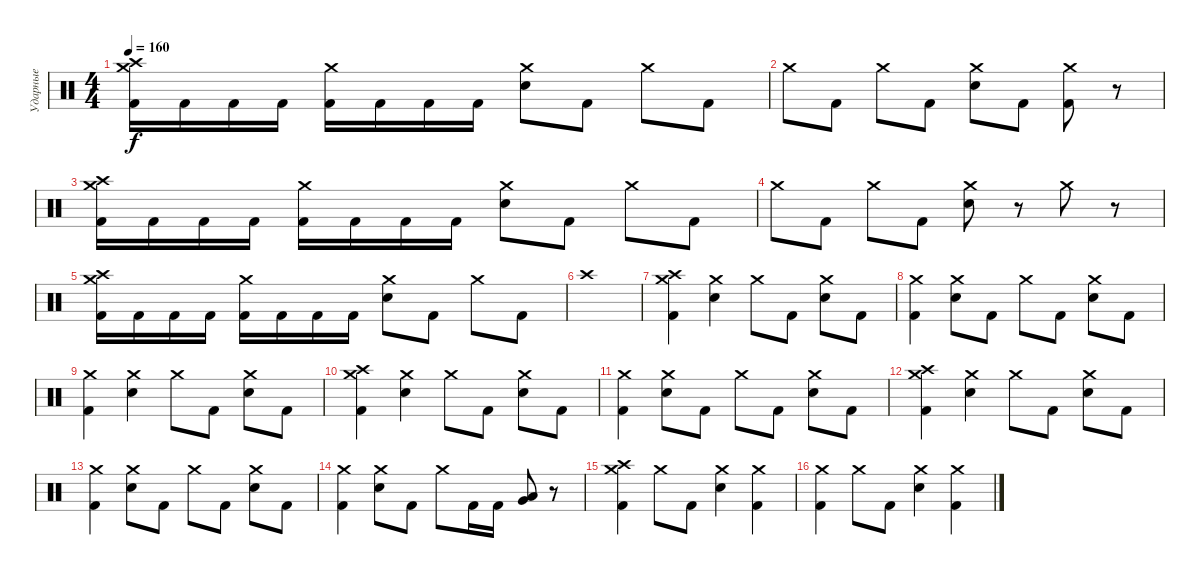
\track ("Ударные" "Ударные") {instrument percussion}
\staff {score}
\articulation defaults
\ts (4 4)
\tempo 160
\clef neutral
\ks c
("Crash medium (hit)" "Crash high (hit)" "Kick (hit) 2").16{dy f} "Kick (hit) 2".16 "Kick (hit) 2".16 "Kick (hit) 2".16 ("Crash medium (hit)" "Kick (hit) 2").16 "Kick (hit) 2".16 "Kick (hit) 2".16 "Kick (hit) 2".16 ("Crash medium (hit)" "Electric Snare (hit)").8 "Kick (hit) 2".8 "Crash medium (hit)".8 "Kick (hit) 2".8 |
"Crash medium (hit)".8 "Kick (hit) 2".8 "Crash medium (hit)".8 "Kick (hit) 2".8 ("Crash medium (hit)" "Electric Snare (hit)").8 "Kick (hit) 2".8 ("Crash medium (hit)" "Kick (hit) 2").8 r.8 |
("Crash medium (hit)" "Crash high (hit)" "Kick (hit) 2").16 "Kick (hit) 2".16 "Kick (hit) 2".16 "Kick (hit) 2".16 ("Crash medium (hit)" "Kick (hit) 2").16 "Kick (hit) 2".16 "Kick (hit) 2".16 "Kick (hit) 2".16 ("Crash medium (hit)" "Electric Snare (hit)").8 "Kick (hit) 2".8 "Crash medium (hit)".8 "Kick (hit) 2".8 |
"Crash medium (hit)".8 "Kick (hit) 2".8 "Crash medium (hit)".8 "Kick (hit) 2".8 ("Crash medium (hit)" "Electric Snare (hit)").8 r.8 "Crash medium (hit)".8 r.8 |
("Crash medium (hit)" "Crash high (hit)" "Kick (hit) 2").16 "Kick (hit) 2".16 "Kick (hit) 2".16 "Kick (hit) 2".16 ("Crash medium (hit)" "Kick (hit) 2").16 "Kick (hit) 2".16 "Kick (hit) 2".16 "Kick (hit) 2".16 ("Crash medium (hit)" "Electric Snare (hit)").8 "Kick (hit) 2".8 "Crash medium (hit)".8 "Kick (hit) 2".8 |
"Crash high (hit)".1 |
("Crash medium (hit)" "Crash high (hit)" "Kick (hit) 2").4 ("Crash medium (hit)" "Electric Snare (hit)").4 "Crash medium (hit)".8 "Kick (hit) 2".8 ("Crash medium (hit)" "Electric Snare (hit)").8 "Kick (hit) 2".8 |
("Crash medium (hit)" "Kick (hit) 2").4 ("Crash medium (hit)" "Electric Snare (hit)").8 "Kick (hit) 2".8 "Crash medium (hit)".8 "Kick (hit) 2".8 ("Crash medium (hit)" "Electric Snare (hit)").8 "Kick (hit) 2".8 |
("Crash medium (hit)" "Kick (hit) 2").4 ("Crash medium (hit)" "Electric Snare (hit)").4 "Crash medium (hit)".8 "Kick (hit) 2".8 ("Crash medium (hit)" "Electric Snare (hit)").8 "Kick (hit) 2".8 |
("Crash medium (hit)" "Crash high (hit)" "Kick (hit) 2").4 ("Crash medium (hit)" "Electric Snare (hit)").4 "Crash medium (hit)".8 "Kick (hit) 2".8 ("Crash medium (hit)" "Electric Snare (hit)").8 "Kick (hit) 2".8 |
("Crash medium (hit)" "Kick (hit) 2").4 ("Crash medium (hit)" "Electric Snare (hit)").8 "Kick (hit) 2".8 "Crash medium (hit)".8 "Kick (hit) 2".8 ("Crash medium (hit)" "Electric Snare (hit)").8 "Kick (hit) 2".8 |
("Crash medium (hit)" "Crash high (hit)" "Kick (hit) 2").4 ("Crash medium (hit)" "Electric Snare (hit)").4 "Crash medium (hit)".8 "Kick (hit) 2".8 ("Crash medium (hit)" "Electric Snare (hit)").8 "Kick (hit) 2".8 |
("Crash medium (hit)" "Kick (hit) 2").4 ("Crash medium (hit)" "Electric Snare (hit)").8 "Kick (hit) 2".8 "Crash medium (hit)".8 "Kick (hit) 2".8 ("Crash medium (hit)" "Electric Snare (hit)").8 "Kick (hit) 2".8 |
("Crash medium (hit)" "Kick (hit) 2").4 ("Crash medium (hit)" "Electric Snare (hit)").8 "Kick (hit) 2".8 "Crash medium (hit)".8 "Kick (hit) 2".16 "Kick (hit) 2".16 ("Very Low Tom (hit)" "Low Floor Tom (hit)").8 r.8 |
("Crash medium (hit)" "Crash high (hit)" "Kick (hit) 2").4 "Crash medium (hit)".8 "Kick (hit) 2".8 ("Crash medium (hit)" "Electric Snare (hit)").4 ("Crash medium (hit)" "Kick (hit) 2").4 |
("Crash medium (hit)" "Kick (hit) 2").4 "Crash medium (hit)".8 "Kick (hit) 2".8 ("Crash medium (hit)" "Electric Snare (hit)").4 ("Crash medium (hit)" "Kick (hit) 2").4
